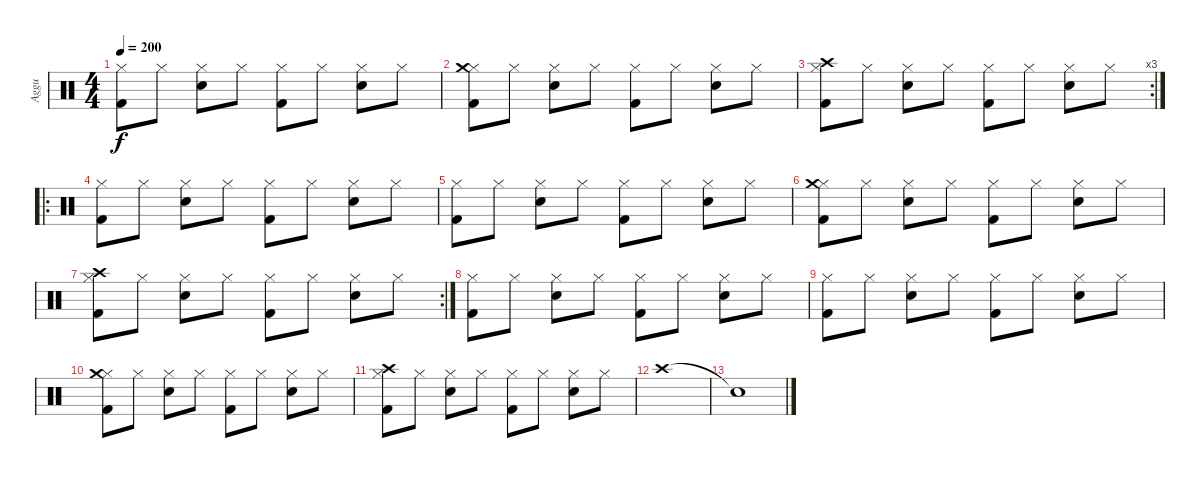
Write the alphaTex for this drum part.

\track ("Aggu" "Aggu") {instrument percussion}
\staff {score}
\articulation defaults
\ts (4 4)
\tempo 200
\clef neutral
\ks c
("Hi-Hat (closed)" "Kick (hit) 2").8{dy f} "Hi-Hat (closed)".8 ("Hi-Hat (closed)" "Snare (hit) 2").8 "Hi-Hat (closed)".8 ("Hi-Hat (closed)" "Kick (hit) 2").8 "Hi-Hat (closed)".8 ("Hi-Hat (closed)" "Snare (hit) 2").8 "Hi-Hat (closed)".8 |
("Hi-Hat (closed)" "Crash medium (hit)" "Kick (hit) 2").8 "Hi-Hat (closed)".8 ("Hi-Hat (closed)" "Snare (hit) 2").8 "Hi-Hat (closed)".8 ("Hi-Hat (closed)" "Kick (hit) 2").8 "Hi-Hat (closed)".8 ("Hi-Hat (closed)" "Snare (hit) 2").8 "Hi-Hat (closed)".8 |
\rc 3
("Hi-Hat (closed)" "Crash high (hit)" "Kick (hit) 2").8 "Hi-Hat (closed)".8 ("Hi-Hat (closed)" "Snare (hit) 2").8 "Hi-Hat (closed)".8 ("Hi-Hat (closed)" "Kick (hit) 2").8 "Hi-Hat (closed)".8 ("Hi-Hat (closed)" "Snare (hit) 2").8 "Hi-Hat (closed)".8 |
\ro
("Hi-Hat (closed)" "Kick (hit) 2").8 "Hi-Hat (closed)".8 ("Hi-Hat (closed)" "Snare (hit) 2").8 "Hi-Hat (closed)".8 ("Hi-Hat (closed)" "Kick (hit) 2").8 "Hi-Hat (closed)".8 ("Hi-Hat (closed)" "Snare (hit) 2").8 "Hi-Hat (closed)".8 |
("Hi-Hat (closed)" "Kick (hit) 2").8 "Hi-Hat (closed)".8 ("Hi-Hat (closed)" "Snare (hit) 2").8 "Hi-Hat (closed)".8 ("Hi-Hat (closed)" "Kick (hit) 2").8 "Hi-Hat (closed)".8 ("Hi-Hat (closed)" "Snare (hit) 2").8 "Hi-Hat (closed)".8 |
("Hi-Hat (closed)" "Crash medium (hit)" "Kick (hit) 2").8 "Hi-Hat (closed)".8 ("Hi-Hat (closed)" "Snare (hit) 2").8 "Hi-Hat (closed)".8 ("Hi-Hat (closed)" "Kick (hit) 2").8 "Hi-Hat (closed)".8 ("Hi-Hat (closed)" "Snare (hit) 2").8 "Hi-Hat (closed)".8 |
\rc 2
("Hi-Hat (closed)" "Crash high (hit)" "Kick (hit) 2").8 "Hi-Hat (closed)".8 ("Hi-Hat (closed)" "Snare (hit) 2").8 "Hi-Hat (closed)".8 ("Hi-Hat (closed)" "Kick (hit) 2").8 "Hi-Hat (closed)".8 ("Hi-Hat (closed)" "Snare (hit) 2").8 "Hi-Hat (closed)".8 |
("Hi-Hat (closed)" "Kick (hit) 2").8 "Hi-Hat (closed)".8 ("Hi-Hat (closed)" "Snare (hit) 2").8 "Hi-Hat (closed)".8 ("Hi-Hat (closed)" "Kick (hit) 2").8 "Hi-Hat (closed)".8 ("Hi-Hat (closed)" "Snare (hit) 2").8 "Hi-Hat (closed)".8 |
("Hi-Hat (closed)" "Kick (hit) 2").8 "Hi-Hat (closed)".8 ("Hi-Hat (closed)" "Snare (hit) 2").8 "Hi-Hat (closed)".8 ("Hi-Hat (closed)" "Kick (hit) 2").8 "Hi-Hat (closed)".8 ("Hi-Hat (closed)" "Snare (hit) 2").8 "Hi-Hat (closed)".8 |
("Hi-Hat (closed)" "Crash medium (hit)" "Kick (hit) 2").8 "Hi-Hat (closed)".8 ("Hi-Hat (closed)" "Snare (hit) 2").8 "Hi-Hat (closed)".8 ("Hi-Hat (closed)" "Kick (hit) 2").8 "Hi-Hat (closed)".8 ("Hi-Hat (closed)" "Snare (hit) 2").8 "Hi-Hat (closed)".8 |
("Hi-Hat (closed)" "Crash high (hit)" "Kick (hit) 2").8 "Hi-Hat (closed)".8 ("Hi-Hat (closed)" "Snare (hit) 2").8 "Hi-Hat (closed)".8 ("Hi-Hat (closed)" "Kick (hit) 2").8 "Hi-Hat (closed)".8 ("Hi-Hat (closed)" "Snare (hit) 2").8 "Hi-Hat (closed)".8 |
"Crash high (hit)".1 |
"Snare (hit)"{t}.1
